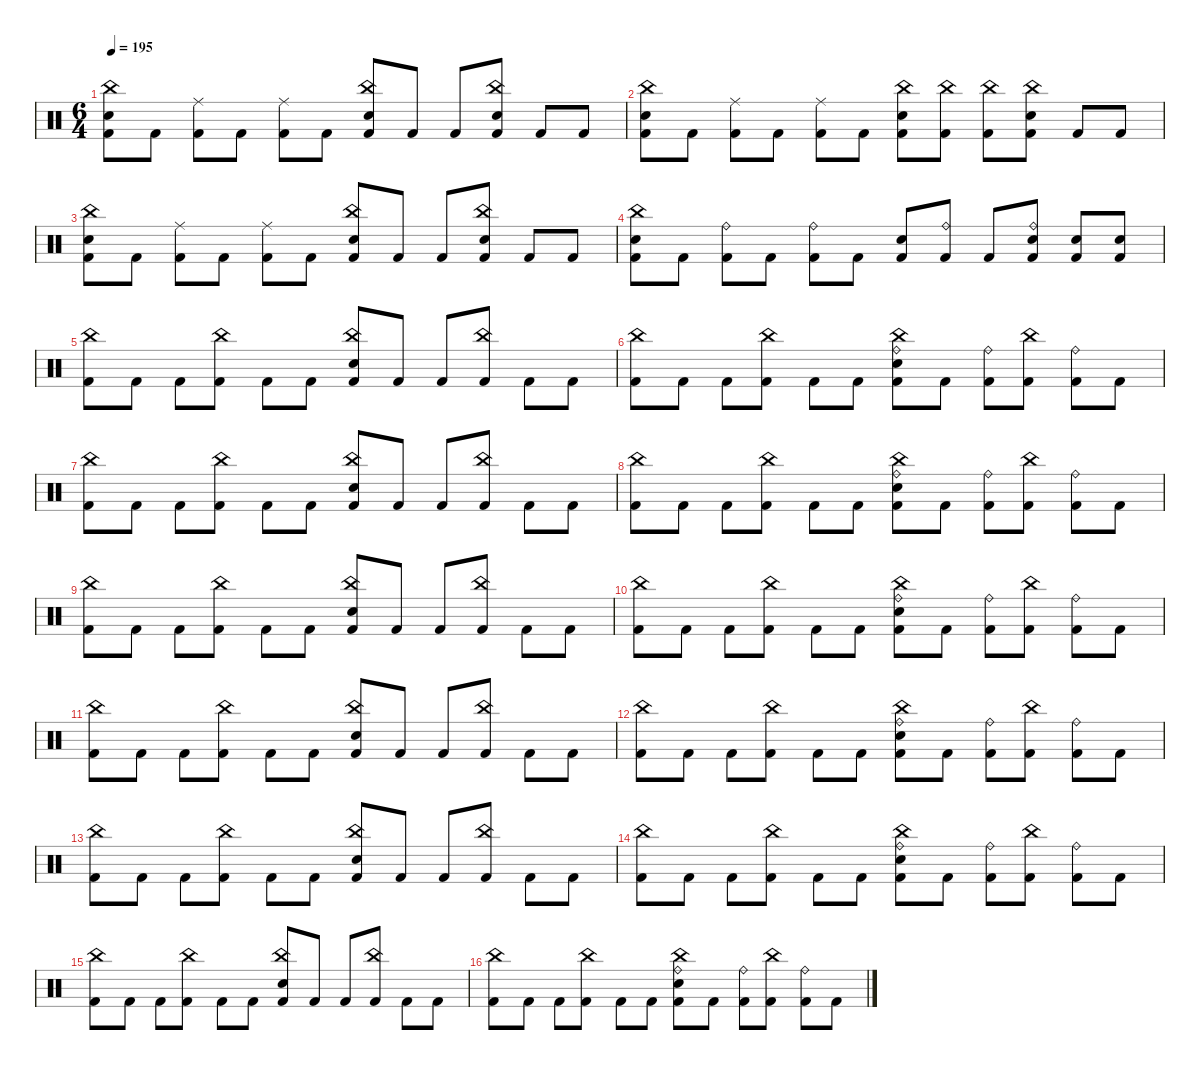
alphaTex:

\defaultSystemsLayout 4
\hideDynamics
\bracketExtendMode nobrackets
\singleTrackTrackNamePolicy hidden
\multiTrackTrackNamePolicy hidden
\firstSystemTrackNameMode fullname
\firstSystemTrackNameOrientation horizontal
\otherSystemsTrackNameOrientation horizontal
\track ("Drums" "drm.") {instrument percussion}
\staff {score}
\articulation defaults
\ts (6 4)
\tempo 195
\clef neutral
\ks c
("China (hit)" "Snare (hit) 2" "Kick (hit) 2").8{dy f beam Down} "Kick (hit) 2".8{beam Down} ("Ride (middle)" "Kick (hit) 2").8{beam Down} "Kick (hit) 2".8{beam Down} ("Ride (middle)" "Kick (hit) 2").8{beam Down} "Kick (hit) 2".8{beam Down} ("China (hit)" "Snare (hit) 2" "Kick (hit) 2").8{beam Up} "Kick (hit) 2".8{beam Up} "Kick (hit) 2".8{beam Up} ("China (hit)" "Snare (hit) 2" "Kick (hit) 2").8{beam Up} "Kick (hit) 2".8{beam Up} "Kick (hit) 2".8{beam Up} |
("China (hit)" "Snare (hit) 2" "Kick (hit) 2").8{beam Down} "Kick (hit) 2".8{beam Down} ("Ride (middle)" "Kick (hit) 2").8{beam Down} "Kick (hit) 2".8{beam Down} ("Ride (middle)" "Kick (hit) 2").8{beam Down} "Kick (hit) 2".8{beam Down} ("China (hit)" "Snare (hit) 2" "Kick (hit) 2").8{beam Down} ("China (hit)" "Kick (hit) 2").8{beam Down} ("China (hit)" "Kick (hit) 2").8{beam Down} ("China (hit)" "Snare (hit) 2" "Kick (hit) 2").8{beam Up} "Kick (hit) 2".8{beam Up} "Kick (hit) 2".8{beam Up} |
("China (hit)" "Snare (hit) 2" "Kick (hit) 2").8{beam Down} "Kick (hit) 2".8{beam Down} ("Ride (middle)" "Kick (hit) 2").8{beam Down} "Kick (hit) 2".8{beam Down} ("Ride (middle)" "Kick (hit) 2").8{beam Down} "Kick (hit) 2".8{beam Down} ("China (hit)" "Snare (hit) 2" "Kick (hit) 2").8{beam Up} "Kick (hit) 2".8{beam Up} "Kick (hit) 2".8{beam Up} ("China (hit)" "Snare (hit) 2" "Kick (hit) 2").8{beam Up} "Kick (hit) 2".8{beam Up} "Kick (hit) 2".8{beam Up} |
("China (hit)" "Snare (hit) 2" "Kick (hit) 2").8{beam Down} "Kick (hit) 2".8{beam Down} ("Ride (bell)" "Kick (hit) 2").8{beam Down} "Kick (hit) 2".8{beam Down} ("Ride (bell)" "Kick (hit) 2").8{beam Down} "Kick (hit) 2".8{beam Down} ("Snare (hit) 2" "Kick (hit) 2").8{beam Up} ("Ride (bell)" "Kick (hit) 2").8{beam Up} "Kick (hit) 2".8{beam Up} ("Ride (bell)" "Snare (hit) 2" "Kick (hit) 2").8{beam Up} ("Snare (hit) 2" "Kick (hit) 2").8{beam Up} ("Snare (hit) 2" "Kick (hit) 2").8{beam Up} |
("China (hit)" "Kick (hit) 2").8{beam Down} "Kick (hit) 2".8{beam Down} "Kick (hit) 2".8{beam Down} ("China (hit)" "Kick (hit) 2").8{beam Down} "Kick (hit) 2".8{beam Down} "Kick (hit) 2".8{beam Down} ("China (hit)" "Snare (hit) 2" "Kick (hit) 2").8{beam Up} "Kick (hit) 2".8{beam Up} "Kick (hit) 2".8{beam Up} ("China (hit)" "Kick (hit) 2").8{beam Down} "Kick (hit) 2".8{beam Down} "Kick (hit) 2".8{beam Down} |
("China (hit)" "Kick (hit) 2").8{beam Down} "Kick (hit) 2".8{beam Down} "Kick (hit) 2".8{beam Down} ("China (hit)" "Kick (hit) 2").8{beam Down} "Kick (hit) 2".8{beam Down} "Kick (hit) 2".8{beam Down} ("China (hit)" "Ride (bell)" "Snare (hit) 2" "Kick (hit) 2").8{beam Down} "Kick (hit) 2".8{beam Down} ("Ride (bell)" "Kick (hit) 2").8{beam Down} ("China (hit)" "Kick (hit) 2").8{beam Down} ("Ride (bell)" "Kick (hit) 2").8{beam Down} "Kick (hit) 2".8{beam Down} |
("China (hit)" "Kick (hit) 2").8{beam Down} "Kick (hit) 2".8{beam Down} "Kick (hit) 2".8{beam Down} ("China (hit)" "Kick (hit) 2").8{beam Down} "Kick (hit) 2".8{beam Down} "Kick (hit) 2".8{beam Down} ("China (hit)" "Snare (hit) 2" "Kick (hit) 2").8{beam Up} "Kick (hit) 2".8{beam Up} "Kick (hit) 2".8{beam Up} ("China (hit)" "Kick (hit) 2").8{beam Down} "Kick (hit) 2".8{beam Down} "Kick (hit) 2".8{beam Down} |
("China (hit)" "Kick (hit) 2").8{beam Down} "Kick (hit) 2".8{beam Down} "Kick (hit) 2".8{beam Down} ("China (hit)" "Kick (hit) 2").8{beam Down} "Kick (hit) 2".8{beam Down} "Kick (hit) 2".8{beam Down} ("China (hit)" "Ride (bell)" "Snare (hit) 2" "Kick (hit) 2").8{beam Down} "Kick (hit) 2".8{beam Down} ("Ride (bell)" "Kick (hit) 2").8{beam Down} ("China (hit)" "Kick (hit) 2").8{beam Down} ("Ride (bell)" "Kick (hit) 2").8{beam Down} "Kick (hit) 2".8{beam Down} |
("China (hit)" "Kick (hit) 2").8{beam Down} "Kick (hit) 2".8{beam Down} "Kick (hit) 2".8{beam Down} ("China (hit)" "Kick (hit) 2").8{beam Down} "Kick (hit) 2".8{beam Down} "Kick (hit) 2".8{beam Down} ("China (hit)" "Snare (hit) 2" "Kick (hit) 2").8{beam Up} "Kick (hit) 2".8{beam Up} "Kick (hit) 2".8{beam Up} ("China (hit)" "Kick (hit) 2").8{beam Down} "Kick (hit) 2".8{beam Down} "Kick (hit) 2".8{beam Down} |
("China (hit)" "Kick (hit) 2").8{beam Down} "Kick (hit) 2".8{beam Down} "Kick (hit) 2".8{beam Down} ("China (hit)" "Kick (hit) 2").8{beam Down} "Kick (hit) 2".8{beam Down} "Kick (hit) 2".8{beam Down} ("China (hit)" "Ride (bell)" "Snare (hit) 2" "Kick (hit) 2").8{beam Down} "Kick (hit) 2".8{beam Down} ("Ride (bell)" "Kick (hit) 2").8{beam Down} ("China (hit)" "Kick (hit) 2").8{beam Down} ("Ride (bell)" "Kick (hit) 2").8{beam Down} "Kick (hit) 2".8{beam Down} |
("China (hit)" "Kick (hit) 2").8{beam Down} "Kick (hit) 2".8{beam Down} "Kick (hit) 2".8{beam Down} ("China (hit)" "Kick (hit) 2").8{beam Down} "Kick (hit) 2".8{beam Down} "Kick (hit) 2".8{beam Down} ("China (hit)" "Snare (hit) 2" "Kick (hit) 2").8{beam Up} "Kick (hit) 2".8{beam Up} "Kick (hit) 2".8{beam Up} ("China (hit)" "Kick (hit) 2").8{beam Down} "Kick (hit) 2".8{beam Down} "Kick (hit) 2".8{beam Down} |
("China (hit)" "Kick (hit) 2").8{beam Down} "Kick (hit) 2".8{beam Down} "Kick (hit) 2".8{beam Down} ("China (hit)" "Kick (hit) 2").8{beam Down} "Kick (hit) 2".8{beam Down} "Kick (hit) 2".8{beam Down} ("China (hit)" "Ride (bell)" "Snare (hit) 2" "Kick (hit) 2").8{beam Down} "Kick (hit) 2".8{beam Down} ("Ride (bell)" "Kick (hit) 2").8{beam Down} ("China (hit)" "Kick (hit) 2").8{beam Down} ("Ride (bell)" "Kick (hit) 2").8{beam Down} "Kick (hit) 2".8{beam Down} |
("China (hit)" "Kick (hit) 2").8{beam Down} "Kick (hit) 2".8{beam Down} "Kick (hit) 2".8{beam Down} ("China (hit)" "Kick (hit) 2").8{beam Down} "Kick (hit) 2".8{beam Down} "Kick (hit) 2".8{beam Down} ("China (hit)" "Snare (hit) 2" "Kick (hit) 2").8{beam Up} "Kick (hit) 2".8{beam Up} "Kick (hit) 2".8{beam Up} ("China (hit)" "Kick (hit) 2").8{beam Down} "Kick (hit) 2".8{beam Down} "Kick (hit) 2".8{beam Down} |
("China (hit)" "Kick (hit) 2").8{beam Down} "Kick (hit) 2".8{beam Down} "Kick (hit) 2".8{beam Down} ("China (hit)" "Kick (hit) 2").8{beam Down} "Kick (hit) 2".8{beam Down} "Kick (hit) 2".8{beam Down} ("China (hit)" "Ride (bell)" "Snare (hit) 2" "Kick (hit) 2").8{beam Down} "Kick (hit) 2".8{beam Down} ("Ride (bell)" "Kick (hit) 2").8{beam Down} ("China (hit)" "Kick (hit) 2").8{beam Down} ("Ride (bell)" "Kick (hit) 2").8{beam Down} "Kick (hit) 2".8{beam Down} |
("China (hit)" "Kick (hit) 2").8{beam Down} "Kick (hit) 2".8{beam Down} "Kick (hit) 2".8{beam Down} ("China (hit)" "Kick (hit) 2").8{beam Down} "Kick (hit) 2".8{beam Down} "Kick (hit) 2".8{beam Down} ("China (hit)" "Snare (hit) 2" "Kick (hit) 2").8{beam Up} "Kick (hit) 2".8{beam Up} "Kick (hit) 2".8{beam Up} ("China (hit)" "Kick (hit) 2").8{beam Down} "Kick (hit) 2".8{beam Down} "Kick (hit) 2".8{beam Down} |
("China (hit)" "Kick (hit) 2").8{beam Down} "Kick (hit) 2".8{beam Down} "Kick (hit) 2".8{beam Down} ("China (hit)" "Kick (hit) 2").8{beam Down} "Kick (hit) 2".8{beam Down} "Kick (hit) 2".8{beam Down} ("China (hit)" "Ride (bell)" "Snare (hit) 2" "Kick (hit) 2").8{beam Down} "Kick (hit) 2".8{beam Down} ("Ride (bell)" "Kick (hit) 2").8{beam Down} ("China (hit)" "Kick (hit) 2").8{beam Down} ("Ride (bell)" "Kick (hit) 2").8{beam Down} "Kick (hit) 2".8{beam Down}
